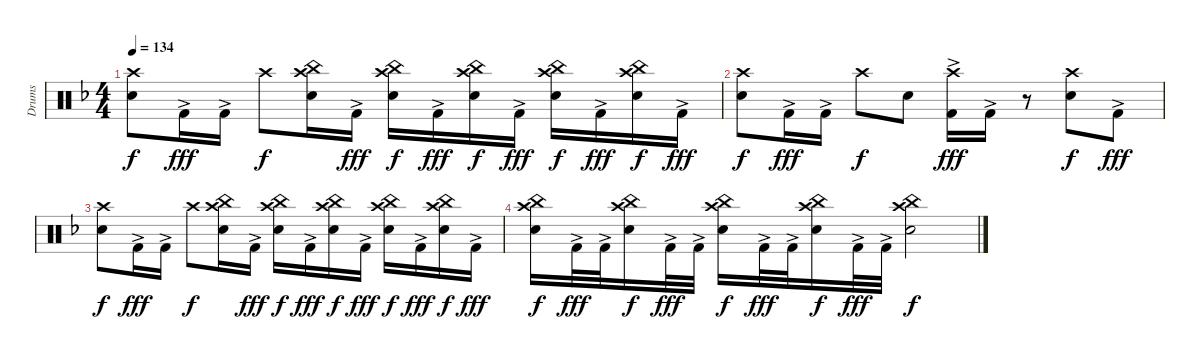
\track ("Drums" "Drums") {instrument percussion}
\staff {score}
\articulation defaults
\ts (4 4)
\tempo 134
\clef neutral
\ks dminor
("Crash high (hit)" "Snare (hit) 2").8{dy f} "Kick (hit) 2"{ac}.16{dy fff} "Kick (hit) 2"{ac}.16 "Crash high (hit)".8{dy f} ("Crash high (hit)" "China (hit)" "Snare (hit) 2").16 "Kick (hit) 2"{ac}.16{dy fff} ("Crash high (hit)" "China (hit)" "Snare (hit) 2").16{dy f} "Kick (hit) 2"{ac}.16{dy fff} ("Crash high (hit)" "China (hit)" "Snare (hit) 2").16{dy f} "Kick (hit) 2"{ac}.16{dy fff} ("Crash high (hit)" "China (hit)" "Snare (hit) 2").16{dy f} "Kick (hit) 2"{ac}.16{dy fff} ("Crash high (hit)" "China (hit)" "Snare (hit) 2").16{dy f} "Kick (hit) 2"{ac}.16{dy fff} |
("Crash high (hit)" "Snare (hit) 2").8{dy f} "Kick (hit) 2"{ac}.16{dy fff} "Kick (hit) 2"{ac}.16 "Crash high (hit)".8{dy f} "Snare (hit) 2".8 ("Crash high (hit)" "Kick (hit) 2"{ac}).16{dy fff} "Kick (hit) 2"{ac}.16 r.8 ("Crash high (hit)" "Snare (hit) 2").8{dy f} "Kick (hit) 2"{ac}.8{dy fff} |
("Crash high (hit)" "Snare (hit) 2").8{dy f} "Kick (hit) 2"{ac}.16{dy fff} "Kick (hit) 2"{ac}.16 "Crash high (hit)".8{dy f} ("Crash high (hit)" "China (hit)" "Snare (hit) 2").16 "Kick (hit) 2"{ac}.16{dy fff} ("Crash high (hit)" "China (hit)" "Snare (hit) 2").16{dy f} "Kick (hit) 2"{ac}.16{dy fff} ("Crash high (hit)" "China (hit)" "Snare (hit) 2").16{dy f} "Kick (hit) 2"{ac}.16{dy fff} ("Crash high (hit)" "China (hit)" "Snare (hit) 2").16{dy f} "Kick (hit) 2"{ac}.16{dy fff} ("Crash high (hit)" "China (hit)" "Snare (hit) 2").16{dy f} "Kick (hit) 2"{ac}.16{dy fff} |
("Crash high (hit)" "China (hit)" "Snare (hit) 2").16{dy f} "Kick (hit) 2"{ac}.32{dy fff} "Kick (hit) 2"{ac}.32 ("Crash high (hit)" "China (hit)" "Snare (hit) 2").16{dy f} "Kick (hit) 2"{ac}.32{dy fff} "Kick (hit) 2"{ac}.32 ("Crash high (hit)" "China (hit)" "Snare (hit) 2").16{dy f} "Kick (hit) 2"{ac}.32{dy fff} "Kick (hit) 2"{ac}.32 ("Crash high (hit)" "China (hit)" "Snare (hit) 2").16{dy f} "Kick (hit) 2"{ac}.32{dy fff} "Kick (hit) 2"{ac}.32 ("Crash high (hit)" "China (hit)" "Snare (hit) 2").2{dy f}
